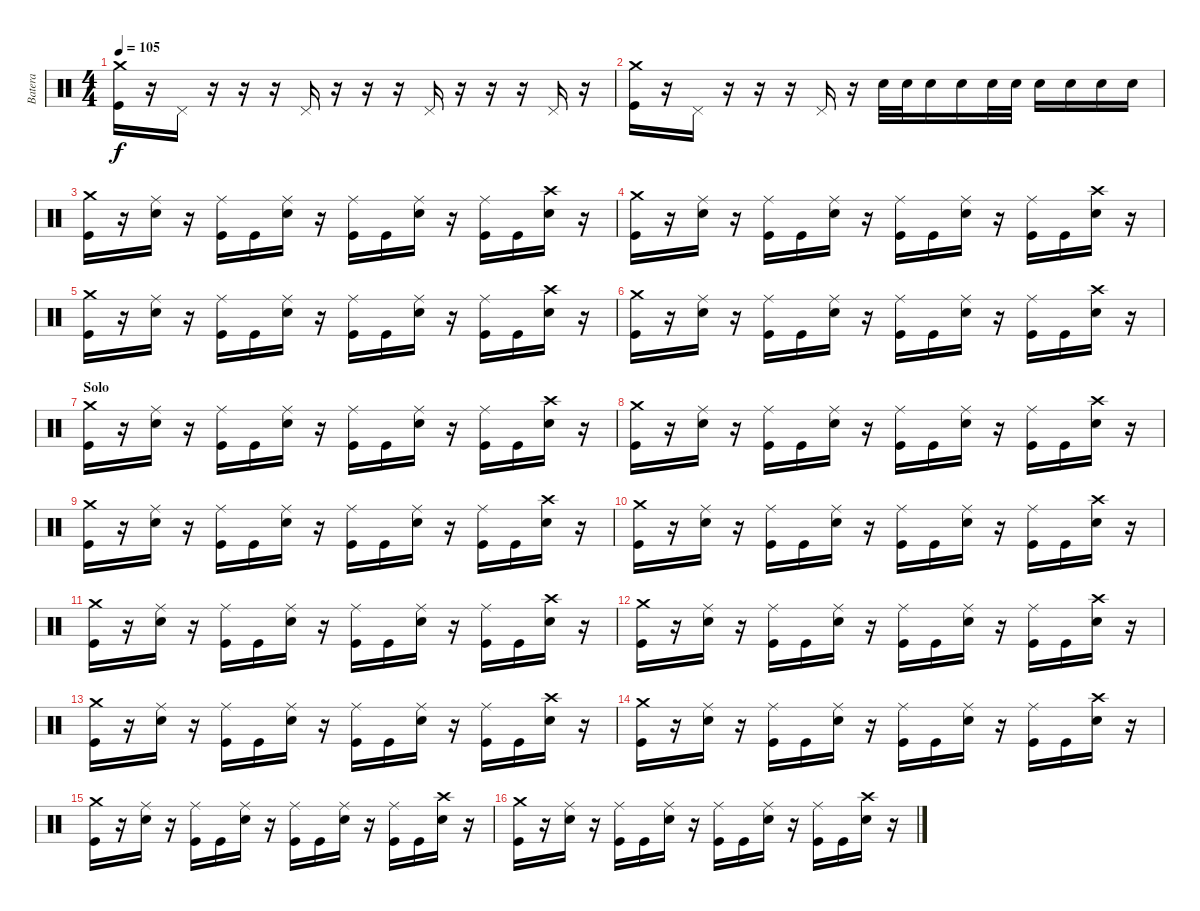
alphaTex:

\track ("Batera" "Batera") {instrument percussion}
\staff {score}
\articulation defaults
\ts (4 4)
\tempo 105
\clef neutral
\ks c
("Crash medium (hit)" "Kick (hit)").16{dy f} r.16 "Pedal Hi-Hat (hit)".16 r.16 r.16 r.16 "Pedal Hi-Hat (hit)".16 r.16 r.16 r.16 "Pedal Hi-Hat (hit)".16 r.16 r.16 r.16 "Pedal Hi-Hat (hit)".16 r.16 |
("Crash medium (hit)" "Kick (hit)").16 r.16 "Pedal Hi-Hat (hit)".16 r.16 r.16 r.16 "Pedal Hi-Hat (hit)".16 r.16 "Snare (hit) 2".32 "Snare (hit) 2".32 "Snare (hit) 2".16 "Snare (hit) 2".16 "Snare (hit) 2".32 "Snare (hit) 2".32 "Snare (hit) 2".16 "Snare (hit) 2".16 "Snare (hit) 2".16 "Snare (hit) 2".16 |
("Crash medium (hit)" "Kick (hit)").16 r.16 ("Ride (middle)" "Snare (hit) 2").16 r.16 ("Ride (middle)" "Kick (hit)").16 "Kick (hit)".16 ("Ride (middle)" "Snare (hit) 2").16 r.16 ("Ride (middle)" "Kick (hit)").16 "Kick (hit)".16 ("Ride (middle)" "Snare (hit) 2").16 r.16 ("Ride (middle)" "Kick (hit)").16 "Kick (hit)".16 ("Crash high (hit)" "Snare (hit) 2").16 r.16 |
("Crash medium (hit)" "Kick (hit)").16 r.16 ("Ride (middle)" "Snare (hit) 2").16 r.16 ("Ride (middle)" "Kick (hit)").16 "Kick (hit)".16 ("Ride (middle)" "Snare (hit) 2").16 r.16 ("Ride (middle)" "Kick (hit)").16 "Kick (hit)".16 ("Ride (middle)" "Snare (hit) 2").16 r.16 ("Ride (middle)" "Kick (hit)").16 "Kick (hit)".16 ("Crash high (hit)" "Snare (hit) 2").16 r.16 |
("Crash medium (hit)" "Kick (hit)").16 r.16 ("Ride (middle)" "Snare (hit) 2").16 r.16 ("Ride (middle)" "Kick (hit)").16 "Kick (hit)".16 ("Ride (middle)" "Snare (hit) 2").16 r.16 ("Ride (middle)" "Kick (hit)").16 "Kick (hit)".16 ("Ride (middle)" "Snare (hit) 2").16 r.16 ("Ride (middle)" "Kick (hit)").16 "Kick (hit)".16 ("Crash high (hit)" "Snare (hit) 2").16 r.16 |
("Crash medium (hit)" "Kick (hit)").16 r.16 ("Ride (middle)" "Snare (hit) 2").16 r.16 ("Ride (middle)" "Kick (hit)").16 "Kick (hit)".16 ("Ride (middle)" "Snare (hit) 2").16 r.16 ("Ride (middle)" "Kick (hit)").16 "Kick (hit)".16 ("Ride (middle)" "Snare (hit) 2").16 r.16 ("Ride (middle)" "Kick (hit)").16 "Kick (hit)".16 ("Crash high (hit)" "Snare (hit) 2").16 r.16 |
\section ("" "Solo")
("Crash medium (hit)" "Kick (hit)").16 r.16 ("Ride (middle)" "Snare (hit) 2").16 r.16 ("Ride (middle)" "Kick (hit)").16 "Kick (hit)".16 ("Ride (middle)" "Snare (hit) 2").16 r.16 ("Ride (middle)" "Kick (hit)").16 "Kick (hit)".16 ("Ride (middle)" "Snare (hit) 2").16 r.16 ("Ride (middle)" "Kick (hit)").16 "Kick (hit)".16 ("Crash high (hit)" "Snare (hit) 2").16 r.16 |
("Crash medium (hit)" "Kick (hit)").16 r.16 ("Ride (middle)" "Snare (hit) 2").16 r.16 ("Ride (middle)" "Kick (hit)").16 "Kick (hit)".16 ("Ride (middle)" "Snare (hit) 2").16 r.16 ("Ride (middle)" "Kick (hit)").16 "Kick (hit)".16 ("Ride (middle)" "Snare (hit) 2").16 r.16 ("Ride (middle)" "Kick (hit)").16 "Kick (hit)".16 ("Crash high (hit)" "Snare (hit) 2").16 r.16 |
("Crash medium (hit)" "Kick (hit)").16 r.16 ("Ride (middle)" "Snare (hit) 2").16 r.16 ("Ride (middle)" "Kick (hit)").16 "Kick (hit)".16 ("Ride (middle)" "Snare (hit) 2").16 r.16 ("Ride (middle)" "Kick (hit)").16 "Kick (hit)".16 ("Ride (middle)" "Snare (hit) 2").16 r.16 ("Ride (middle)" "Kick (hit)").16 "Kick (hit)".16 ("Crash high (hit)" "Snare (hit) 2").16 r.16 |
("Crash medium (hit)" "Kick (hit)").16 r.16 ("Ride (middle)" "Snare (hit) 2").16 r.16 ("Ride (middle)" "Kick (hit)").16 "Kick (hit)".16 ("Ride (middle)" "Snare (hit) 2").16 r.16 ("Ride (middle)" "Kick (hit)").16 "Kick (hit)".16 ("Ride (middle)" "Snare (hit) 2").16 r.16 ("Ride (middle)" "Kick (hit)").16 "Kick (hit)".16 ("Crash high (hit)" "Snare (hit) 2").16 r.16 |
("Crash medium (hit)" "Kick (hit)").16 r.16 ("Ride (middle)" "Snare (hit) 2").16 r.16 ("Ride (middle)" "Kick (hit)").16 "Kick (hit)".16 ("Ride (middle)" "Snare (hit) 2").16 r.16 ("Ride (middle)" "Kick (hit)").16 "Kick (hit)".16 ("Ride (middle)" "Snare (hit) 2").16 r.16 ("Ride (middle)" "Kick (hit)").16 "Kick (hit)".16 ("Crash high (hit)" "Snare (hit) 2").16 r.16 |
("Crash medium (hit)" "Kick (hit)").16 r.16 ("Ride (middle)" "Snare (hit) 2").16 r.16 ("Ride (middle)" "Kick (hit)").16 "Kick (hit)".16 ("Ride (middle)" "Snare (hit) 2").16 r.16 ("Ride (middle)" "Kick (hit)").16 "Kick (hit)".16 ("Ride (middle)" "Snare (hit) 2").16 r.16 ("Ride (middle)" "Kick (hit)").16 "Kick (hit)".16 ("Crash high (hit)" "Snare (hit) 2").16 r.16 |
("Crash medium (hit)" "Kick (hit)").16 r.16 ("Ride (middle)" "Snare (hit) 2").16 r.16 ("Ride (middle)" "Kick (hit)").16 "Kick (hit)".16 ("Ride (middle)" "Snare (hit) 2").16 r.16 ("Ride (middle)" "Kick (hit)").16 "Kick (hit)".16 ("Ride (middle)" "Snare (hit) 2").16 r.16 ("Ride (middle)" "Kick (hit)").16 "Kick (hit)".16 ("Crash high (hit)" "Snare (hit) 2").16 r.16 |
("Crash medium (hit)" "Kick (hit)").16 r.16 ("Ride (middle)" "Snare (hit) 2").16 r.16 ("Ride (middle)" "Kick (hit)").16 "Kick (hit)".16 ("Ride (middle)" "Snare (hit) 2").16 r.16 ("Ride (middle)" "Kick (hit)").16 "Kick (hit)".16 ("Ride (middle)" "Snare (hit) 2").16 r.16 ("Ride (middle)" "Kick (hit)").16 "Kick (hit)".16 ("Crash high (hit)" "Snare (hit) 2").16 r.16 |
("Crash medium (hit)" "Kick (hit)").16 r.16 ("Ride (middle)" "Snare (hit) 2").16 r.16 ("Ride (middle)" "Kick (hit)").16 "Kick (hit)".16 ("Ride (middle)" "Snare (hit) 2").16 r.16 ("Ride (middle)" "Kick (hit)").16 "Kick (hit)".16 ("Ride (middle)" "Snare (hit) 2").16 r.16 ("Ride (middle)" "Kick (hit)").16 "Kick (hit)".16 ("Crash high (hit)" "Snare (hit) 2").16 r.16 |
("Crash medium (hit)" "Kick (hit)").16 r.16 ("Ride (middle)" "Snare (hit) 2").16 r.16 ("Ride (middle)" "Kick (hit)").16 "Kick (hit)".16 ("Ride (middle)" "Snare (hit) 2").16 r.16 ("Ride (middle)" "Kick (hit)").16 "Kick (hit)".16 ("Ride (middle)" "Snare (hit) 2").16 r.16 ("Ride (middle)" "Kick (hit)").16 "Kick (hit)".16 ("Crash high (hit)" "Snare (hit) 2").16 r.16
